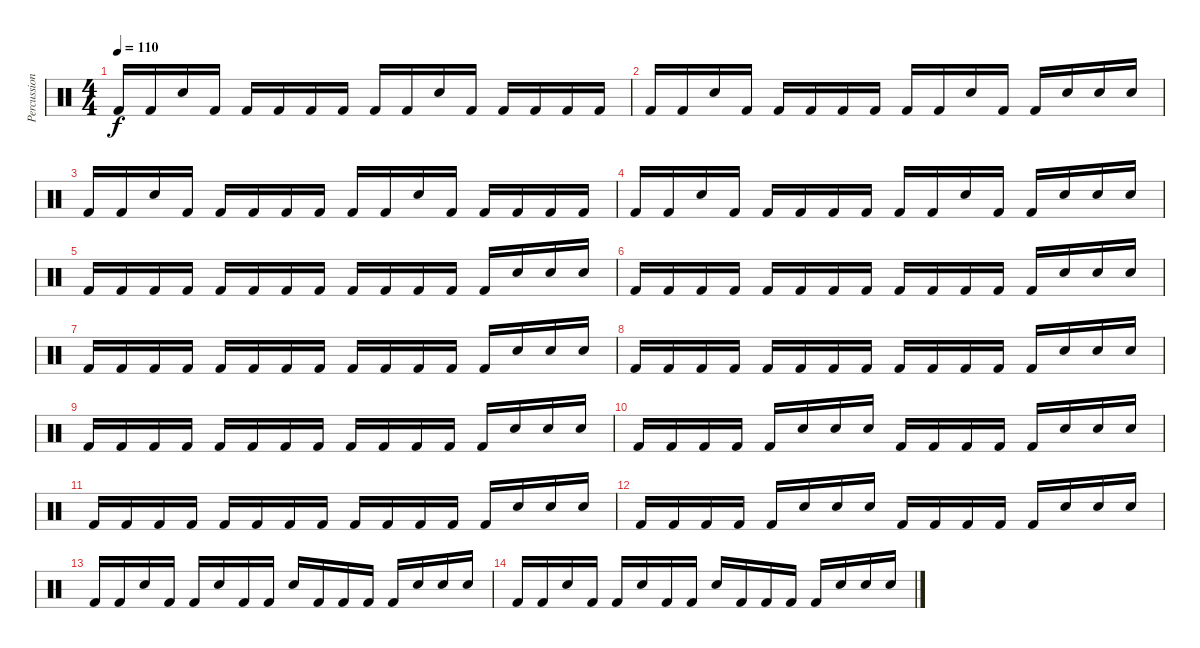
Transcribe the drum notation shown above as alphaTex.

\track ("Percussion" "Percussion") {instrument percussion}
\staff {score}
\articulation defaults
\ts (4 4)
\tempo 110
\clef neutral
\ks c "Kick (hit) 2".16{dy f} "Kick (hit) 2".16 "Snare (hit) 2".16 "Kick (hit) 2".16 "Kick (hit) 2".16 "Kick (hit) 2".16 "Kick (hit) 2".16 "Kick (hit) 2".16 "Kick (hit) 2".16 "Kick (hit) 2".16 "Snare (hit) 2".16 "Kick (hit) 2".16 "Kick (hit) 2".16 "Kick (hit) 2".16 "Kick (hit) 2".16 "Kick (hit) 2".16
|
"Kick (hit) 2".16 "Kick (hit) 2".16 "Snare (hit) 2".16 "Kick (hit) 2".16 "Kick (hit) 2".16 "Kick (hit) 2".16 "Kick (hit) 2".16 "Kick (hit) 2".16 "Kick (hit) 2".16 "Kick (hit) 2".16 "Snare (hit) 2".16 "Kick (hit) 2".16 "Kick (hit) 2".16 "Snare (hit) 2".16 "Snare (hit) 2".16 "Snare (hit) 2".16 |
"Kick (hit) 2".16 "Kick (hit) 2".16 "Snare (hit) 2".16 "Kick (hit) 2".16 "Kick (hit) 2".16 "Kick (hit) 2".16 "Kick (hit) 2".16 "Kick (hit) 2".16 "Kick (hit) 2".16 "Kick (hit) 2".16 "Snare (hit) 2".16 "Kick (hit) 2".16 "Kick (hit) 2".16 "Kick (hit) 2".16 "Kick (hit) 2".16 "Kick (hit) 2".16 |
"Kick (hit) 2".16 "Kick (hit) 2".16 "Snare (hit) 2".16 "Kick (hit) 2".16 "Kick (hit) 2".16 "Kick (hit) 2".16 "Kick (hit) 2".16 "Kick (hit) 2".16 "Kick (hit) 2".16 "Kick (hit) 2".16 "Snare (hit) 2".16 "Kick (hit) 2".16 "Kick (hit) 2".16 "Snare (hit) 2".16 "Snare (hit) 2".16 "Snare (hit) 2".16 |
"Kick (hit) 2".16 "Kick (hit) 2".16 "Kick (hit) 2".16 "Kick (hit) 2".16 "Kick (hit) 2".16 "Kick (hit) 2".16 "Kick (hit) 2".16 "Kick (hit) 2".16 "Kick (hit) 2".16 "Kick (hit) 2".16 "Kick (hit) 2".16 "Kick (hit) 2".16 "Kick (hit) 2".16 "Snare (hit) 2".16 "Snare (hit) 2".16 "Snare (hit) 2".16 |
"Kick (hit) 2".16 "Kick (hit) 2".16 "Kick (hit) 2".16 "Kick (hit) 2".16 "Kick (hit) 2".16 "Kick (hit) 2".16 "Kick (hit) 2".16 "Kick (hit) 2".16 "Kick (hit) 2".16 "Kick (hit) 2".16 "Kick (hit) 2".16 "Kick (hit) 2".16 "Kick (hit) 2".16 "Snare (hit) 2".16 "Snare (hit) 2".16 "Snare (hit) 2".16 |
"Kick (hit) 2".16 "Kick (hit) 2".16 "Kick (hit) 2".16 "Kick (hit) 2".16 "Kick (hit) 2".16 "Kick (hit) 2".16 "Kick (hit) 2".16 "Kick (hit) 2".16 "Kick (hit) 2".16 "Kick (hit) 2".16 "Kick (hit) 2".16 "Kick (hit) 2".16 "Kick (hit) 2".16 "Snare (hit) 2".16 "Snare (hit) 2".16 "Snare (hit) 2".16 |
"Kick (hit) 2".16 "Kick (hit) 2".16 "Kick (hit) 2".16 "Kick (hit) 2".16 "Kick (hit) 2".16 "Kick (hit) 2".16 "Kick (hit) 2".16 "Kick (hit) 2".16 "Kick (hit) 2".16 "Kick (hit) 2".16 "Kick (hit) 2".16 "Kick (hit) 2".16 "Kick (hit) 2".16 "Snare (hit) 2".16 "Snare (hit) 2".16 "Snare (hit) 2".16 |
"Kick (hit) 2".16 "Kick (hit) 2".16 "Kick (hit) 2".16 "Kick (hit) 2".16 "Kick (hit) 2".16 "Kick (hit) 2".16 "Kick (hit) 2".16 "Kick (hit) 2".16 "Kick (hit) 2".16 "Kick (hit) 2".16 "Kick (hit) 2".16 "Kick (hit) 2".16 "Kick (hit) 2".16 "Snare (hit) 2".16 "Snare (hit) 2".16 "Snare (hit) 2".16 |
"Kick (hit) 2".16 "Kick (hit) 2".16 "Kick (hit) 2".16 "Kick (hit) 2".16 "Kick (hit) 2".16 "Snare (hit) 2".16 "Snare (hit) 2".16 "Snare (hit) 2".16 "Kick (hit) 2".16 "Kick (hit) 2".16 "Kick (hit) 2".16 "Kick (hit) 2".16 "Kick (hit) 2".16 "Snare (hit) 2".16 "Snare (hit) 2".16 "Snare (hit) 2".16 |
"Kick (hit) 2".16 "Kick (hit) 2".16 "Kick (hit) 2".16 "Kick (hit) 2".16 "Kick (hit) 2".16 "Kick (hit) 2".16 "Kick (hit) 2".16 "Kick (hit) 2".16 "Kick (hit) 2".16 "Kick (hit) 2".16 "Kick (hit) 2".16 "Kick (hit) 2".16 "Kick (hit) 2".16 "Snare (hit) 2".16 "Snare (hit) 2".16 "Snare (hit) 2".16 |
"Kick (hit) 2".16 "Kick (hit) 2".16 "Kick (hit) 2".16 "Kick (hit) 2".16 "Kick (hit) 2".16 "Snare (hit) 2".16 "Snare (hit) 2".16 "Snare (hit) 2".16 "Kick (hit) 2".16 "Kick (hit) 2".16 "Kick (hit) 2".16 "Kick (hit) 2".16 "Kick (hit) 2".16 "Snare (hit) 2".16 "Snare (hit) 2".16 "Snare (hit) 2".16 |
"Kick (hit) 2".16 "Kick (hit) 2".16 "Snare (hit) 2".16 "Kick (hit) 2".16 "Kick (hit) 2".16 "Snare (hit) 2".16 "Kick (hit) 2".16 "Kick (hit) 2".16 "Snare (hit) 2".16 "Kick (hit) 2".16 "Kick (hit) 2".16 "Kick (hit) 2".16 "Kick (hit) 2".16 "Snare (hit) 2".16 "Snare (hit) 2".16 "Snare (hit) 2".16 |
"Kick (hit) 2".16 "Kick (hit) 2".16 "Snare (hit) 2".16 "Kick (hit) 2".16 "Kick (hit) 2".16 "Snare (hit) 2".16 "Kick (hit) 2".16 "Kick (hit) 2".16 "Snare (hit) 2".16 "Kick (hit) 2".16 "Kick (hit) 2".16 "Kick (hit) 2".16 "Kick (hit) 2".16 "Snare (hit) 2".16 "Snare (hit) 2".16 "Snare (hit) 2".16
